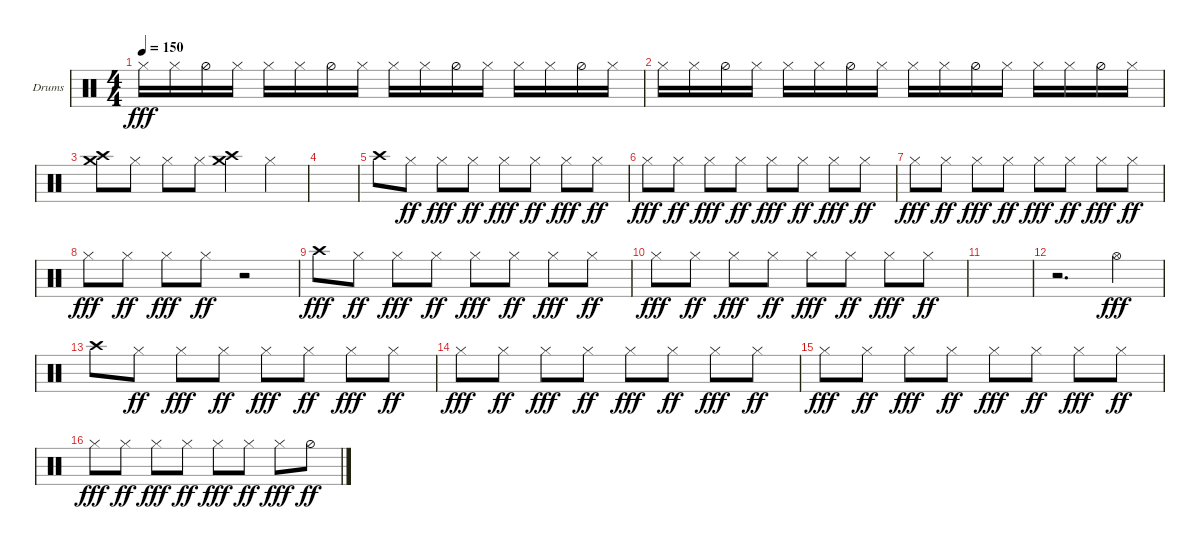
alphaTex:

\defaultSystemsLayout 4
\bracketExtendMode groupsimilarinstruments
\firstSystemTrackNameOrientation horizontal
\otherSystemsTrackNameOrientation horizontal
\track ("Helders" "Drums") {instrument percussion}
\staff {score}
\articulation defaults
\ts (4 4)
\tempo 150
\clef neutral
\ks c "Hi-Hat (closed)".16{dy fff} "Hi-Hat (closed)".16 "Hi-Hat (half)".16 "Hi-Hat (closed)".16 "Hi-Hat (closed)".16 "Hi-Hat (closed)".16 "Hi-Hat (half)".16 "Hi-Hat (closed)".16 "Hi-Hat (closed)".16 "Hi-Hat (closed)".16 "Hi-Hat (half)".16 "Hi-Hat (closed)".16 "Hi-Hat (closed)".16 "Hi-Hat (closed)".16 "Hi-Hat (half)".16 "Hi-Hat (closed)".16
|
"Hi-Hat (closed)".16 "Hi-Hat (closed)".16 "Hi-Hat (half)".16 "Hi-Hat (closed)".16 "Hi-Hat (closed)".16 "Hi-Hat (closed)".16 "Hi-Hat (half)".16 "Hi-Hat (closed)".16 "Hi-Hat (closed)".16 "Hi-Hat (closed)".16 "Hi-Hat (half)".16 "Hi-Hat (closed)".16 "Hi-Hat (closed)".16 "Hi-Hat (closed)".16 "Hi-Hat (half)".16 "Hi-Hat (closed)".16 |
("Crash medium (hit)" "Crash high (hit)").8 "Hi-Hat (closed)".8 "Hi-Hat (closed)".8 "Hi-Hat (closed)".8 ("Crash high (hit)" "Crash medium (hit)").4 "Hi-Hat (closed)".4 |
|
"Crash high (hit)".8 "Hi-Hat (closed)".8{dy ff} "Hi-Hat (closed)".8{dy fff} "Hi-Hat (closed)".8{dy ff} "Hi-Hat (closed)".8{dy fff} "Hi-Hat (closed)".8{dy ff} "Hi-Hat (closed)".8{dy fff} "Hi-Hat (closed)".8{dy ff} |
"Hi-Hat (closed)".8{dy fff} "Hi-Hat (closed)".8{dy ff} "Hi-Hat (closed)".8{dy fff} "Hi-Hat (closed)".8{dy ff} "Hi-Hat (closed)".8{dy fff} "Hi-Hat (closed)".8{dy ff} "Hi-Hat (closed)".8{dy fff} "Hi-Hat (closed)".8{dy ff} |
"Hi-Hat (closed)".8{dy fff} "Hi-Hat (closed)".8{dy ff} "Hi-Hat (closed)".8{dy fff} "Hi-Hat (closed)".8{dy ff} "Hi-Hat (closed)".8{dy fff} "Hi-Hat (closed)".8{dy ff} "Hi-Hat (closed)".8{dy fff} "Hi-Hat (closed)".8{dy ff} |
"Hi-Hat (closed)".8{dy fff} "Hi-Hat (closed)".8{dy ff} "Hi-Hat (closed)".8{dy fff} "Hi-Hat (closed)".8{dy ff} r.2 |
"Crash high (hit)".8{dy fff} "Hi-Hat (closed)".8{dy ff} "Hi-Hat (closed)".8{dy fff} "Hi-Hat (closed)".8{dy ff} "Hi-Hat (closed)".8{dy fff} "Hi-Hat (closed)".8{dy ff} "Hi-Hat (closed)".8{dy fff} "Hi-Hat (closed)".8{dy ff} |
"Hi-Hat (closed)".8{dy fff} "Hi-Hat (closed)".8{dy ff} "Hi-Hat (closed)".8{dy fff} "Hi-Hat (closed)".8{dy ff} "Hi-Hat (closed)".8{dy fff} "Hi-Hat (closed)".8{dy ff} "Hi-Hat (closed)".8{dy fff} "Hi-Hat (closed)".8{dy ff} |
|
r.2{d} "Hi-Hat (open)".4{dy fff} |
"Crash high (hit)".8 "Hi-Hat (closed)".8{dy ff} "Hi-Hat (closed)".8{dy fff} "Hi-Hat (closed)".8{dy ff} "Hi-Hat (closed)".8{dy fff} "Hi-Hat (closed)".8{dy ff} "Hi-Hat (closed)".8{dy fff} "Hi-Hat (closed)".8{dy ff} |
"Hi-Hat (closed)".8{dy fff} "Hi-Hat (closed)".8{dy ff} "Hi-Hat (closed)".8{dy fff} "Hi-Hat (closed)".8{dy ff} "Hi-Hat (closed)".8{dy fff} "Hi-Hat (closed)".8{dy ff} "Hi-Hat (closed)".8{dy fff} "Hi-Hat (closed)".8{dy ff} |
"Hi-Hat (closed)".8{dy fff} "Hi-Hat (closed)".8{dy ff} "Hi-Hat (closed)".8{dy fff} "Hi-Hat (closed)".8{dy ff} "Hi-Hat (closed)".8{dy fff} "Hi-Hat (closed)".8{dy ff} "Hi-Hat (closed)".8{dy fff} "Hi-Hat (closed)".8{dy ff} |
"Hi-Hat (closed)".8{dy fff} "Hi-Hat (closed)".8{dy ff} "Hi-Hat (closed)".8{dy fff} "Hi-Hat (closed)".8{dy ff} "Hi-Hat (closed)".8{dy fff} "Hi-Hat (closed)".8{dy ff} "Hi-Hat (closed)".8{dy fff} "Hi-Hat (half)".8{dy ff}
